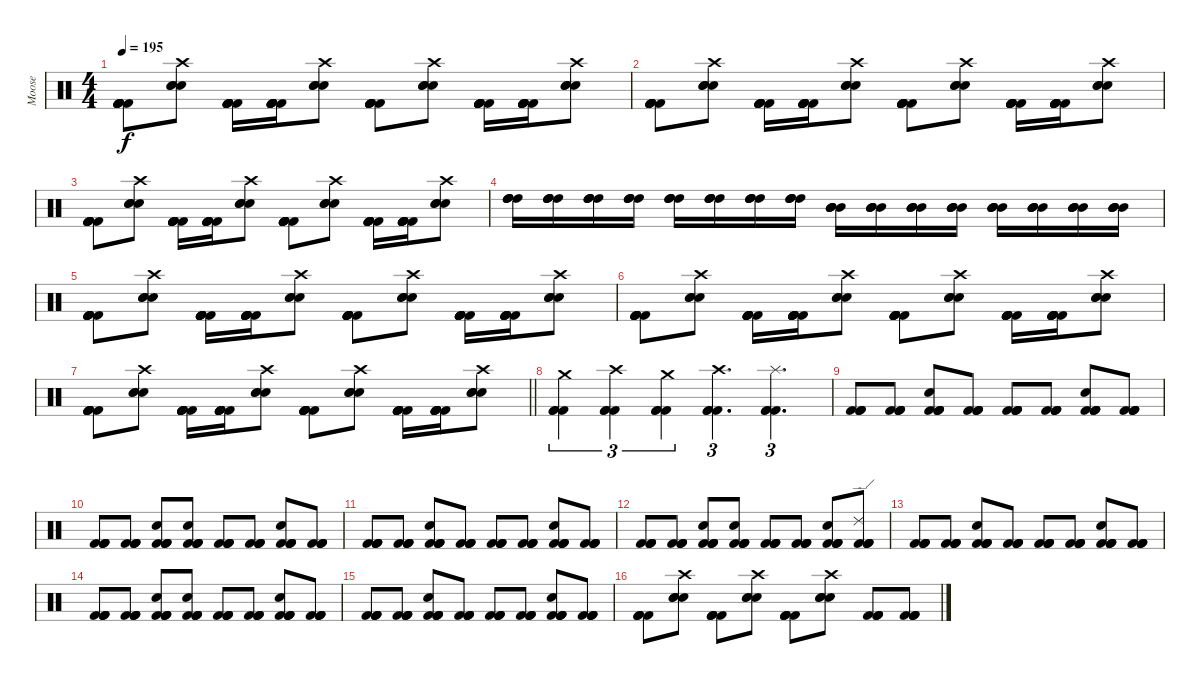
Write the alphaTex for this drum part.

\track ("Moose" "Moose") {instrument percussion}
\staff {score}
\articulation defaults
\ts (4 4)
\tempo 195
\clef neutral
\ks c
("Kick (hit) 2" "Kick (hit) 2" "Kick (hit) 2" "Kick (hit) 2" "Kick (hit) 2" "Kick (hit) 2").8{dy f} ("Electric Snare (hit)" "Electric Snare (hit)" "Electric Snare (hit)" "Crash high (hit)").8 ("Kick (hit) 2" "Kick (hit) 2" "Kick (hit) 2" "Kick (hit) 2" "Kick (hit) 2" "Kick (hit) 2").16 ("Kick (hit) 2" "Kick (hit) 2" "Kick (hit) 2" "Kick (hit) 2" "Kick (hit) 2" "Kick (hit) 2").16 ("Electric Snare (hit)" "Electric Snare (hit)" "Electric Snare (hit)" "Crash high (hit)").8 ("Kick (hit) 2" "Kick (hit) 2" "Kick (hit) 2" "Kick (hit) 2" "Kick (hit) 2" "Kick (hit) 2").8 ("Electric Snare (hit)" "Electric Snare (hit)" "Electric Snare (hit)" "Crash high (hit)").8 ("Kick (hit) 2" "Kick (hit) 2" "Kick (hit) 2" "Kick (hit) 2" "Kick (hit) 2" "Kick (hit) 2").16 ("Kick (hit) 2" "Kick (hit) 2" "Kick (hit) 2" "Kick (hit) 2" "Kick (hit) 2" "Kick (hit) 2").16 ("Electric Snare (hit)" "Electric Snare (hit)" "Electric Snare (hit)" "Crash high (hit)").8 |
("Kick (hit) 2" "Kick (hit) 2" "Kick (hit) 2" "Kick (hit) 2" "Kick (hit) 2" "Kick (hit) 2").8 ("Electric Snare (hit)" "Electric Snare (hit)" "Electric Snare (hit)" "Crash high (hit)").8 ("Kick (hit) 2" "Kick (hit) 2" "Kick (hit) 2" "Kick (hit) 2" "Kick (hit) 2" "Kick (hit) 2").16 ("Kick (hit) 2" "Kick (hit) 2" "Kick (hit) 2" "Kick (hit) 2" "Kick (hit) 2" "Kick (hit) 2").16 ("Electric Snare (hit)" "Electric Snare (hit)" "Electric Snare (hit)" "Crash high (hit)").8 ("Kick (hit) 2" "Kick (hit) 2" "Kick (hit) 2" "Kick (hit) 2" "Kick (hit) 2" "Kick (hit) 2").8 ("Electric Snare (hit)" "Electric Snare (hit)" "Electric Snare (hit)" "Crash high (hit)").8 ("Kick (hit) 2" "Kick (hit) 2" "Kick (hit) 2" "Kick (hit) 2" "Kick (hit) 2" "Kick (hit) 2").16 ("Kick (hit) 2" "Kick (hit) 2" "Kick (hit) 2" "Kick (hit) 2" "Kick (hit) 2" "Kick (hit) 2").16 ("Electric Snare (hit)" "Electric Snare (hit)" "Electric Snare (hit)" "Crash high (hit)").8 |
("Kick (hit) 2" "Kick (hit) 2" "Kick (hit) 2" "Kick (hit) 2" "Kick (hit) 2" "Kick (hit) 2").8 ("Electric Snare (hit)" "Electric Snare (hit)" "Electric Snare (hit)" "Crash high (hit)").8 ("Kick (hit) 2" "Kick (hit) 2" "Kick (hit) 2" "Kick (hit) 2" "Kick (hit) 2" "Kick (hit) 2").16 ("Kick (hit) 2" "Kick (hit) 2" "Kick (hit) 2" "Kick (hit) 2" "Kick (hit) 2" "Kick (hit) 2").16 ("Electric Snare (hit)" "Electric Snare (hit)" "Electric Snare (hit)" "Crash high (hit)").8 ("Kick (hit) 2" "Kick (hit) 2" "Kick (hit) 2" "Kick (hit) 2" "Kick (hit) 2" "Kick (hit) 2").8 ("Electric Snare (hit)" "Electric Snare (hit)" "Electric Snare (hit)" "Crash high (hit)").8 ("Kick (hit) 2" "Kick (hit) 2" "Kick (hit) 2" "Kick (hit) 2" "Kick (hit) 2" "Kick (hit) 2").16 ("Kick (hit) 2" "Kick (hit) 2" "Kick (hit) 2" "Kick (hit) 2" "Kick (hit) 2" "Kick (hit) 2").16 ("Electric Snare (hit)" "Electric Snare (hit)" "Electric Snare (hit)" "Crash high (hit)").8 |
("High Tom (hit)" "High Tom (hit)" "High Tom (hit)" "High Tom (hit)").16 ("High Tom (hit)" "High Tom (hit)" "High Tom (hit)" "High Tom (hit)").16 ("High Tom (hit)" "High Tom (hit)" "High Tom (hit)" "High Tom (hit)").16 ("High Tom (hit)" "High Tom (hit)" "High Tom (hit)" "High Tom (hit)").16 ("High Tom (hit)" "High Tom (hit)" "High Tom (hit)" "High Tom (hit)").16 ("High Tom (hit)" "High Tom (hit)" "High Tom (hit)" "High Tom (hit)").16 ("High Tom (hit)" "High Tom (hit)" "High Tom (hit)" "High Tom (hit)").16 ("High Tom (hit)" "High Tom (hit)" "High Tom (hit)" "High Tom (hit)").16 ("Mid Tom (hit)" "Mid Tom (hit)" "Mid Tom (hit)" "Mid Tom (hit)").16 ("Mid Tom (hit)" "Mid Tom (hit)" "Mid Tom (hit)" "Mid Tom (hit)").16 ("Mid Tom (hit)" "Mid Tom (hit)" "Mid Tom (hit)" "Mid Tom (hit)").16 ("Mid Tom (hit)" "Mid Tom (hit)" "Mid Tom (hit)" "Mid Tom (hit)").16 ("Mid Tom (hit)" "Mid Tom (hit)" "Mid Tom (hit)" "Mid Tom (hit)").16 ("Mid Tom (hit)" "Mid Tom (hit)" "Mid Tom (hit)" "Mid Tom (hit)").16 ("Mid Tom (hit)" "Mid Tom (hit)" "Mid Tom (hit)" "Mid Tom (hit)").16 ("Mid Tom (hit)" "Mid Tom (hit)" "Mid Tom (hit)" "Mid Tom (hit)").16 |
("Kick (hit) 2" "Kick (hit) 2" "Kick (hit) 2" "Kick (hit) 2" "Kick (hit) 2" "Kick (hit) 2").8 ("Electric Snare (hit)" "Electric Snare (hit)" "Electric Snare (hit)" "Crash high (hit)").8 ("Kick (hit) 2" "Kick (hit) 2" "Kick (hit) 2" "Kick (hit) 2" "Kick (hit) 2" "Kick (hit) 2").16 ("Kick (hit) 2" "Kick (hit) 2" "Kick (hit) 2" "Kick (hit) 2" "Kick (hit) 2" "Kick (hit) 2").16 ("Electric Snare (hit)" "Electric Snare (hit)" "Electric Snare (hit)" "Crash high (hit)").8 ("Kick (hit) 2" "Kick (hit) 2" "Kick (hit) 2" "Kick (hit) 2" "Kick (hit) 2" "Kick (hit) 2").8 ("Electric Snare (hit)" "Electric Snare (hit)" "Electric Snare (hit)" "Crash high (hit)").8 ("Kick (hit) 2" "Kick (hit) 2" "Kick (hit) 2" "Kick (hit) 2" "Kick (hit) 2" "Kick (hit) 2").16 ("Kick (hit) 2" "Kick (hit) 2" "Kick (hit) 2" "Kick (hit) 2" "Kick (hit) 2" "Kick (hit) 2").16 ("Electric Snare (hit)" "Electric Snare (hit)" "Electric Snare (hit)" "Crash high (hit)").8 |
("Kick (hit) 2" "Kick (hit) 2" "Kick (hit) 2" "Kick (hit) 2" "Kick (hit) 2" "Kick (hit) 2").8 ("Electric Snare (hit)" "Electric Snare (hit)" "Electric Snare (hit)" "Crash high (hit)").8 ("Kick (hit) 2" "Kick (hit) 2" "Kick (hit) 2" "Kick (hit) 2" "Kick (hit) 2" "Kick (hit) 2").16 ("Kick (hit) 2" "Kick (hit) 2" "Kick (hit) 2" "Kick (hit) 2" "Kick (hit) 2" "Kick (hit) 2").16 ("Electric Snare (hit)" "Electric Snare (hit)" "Electric Snare (hit)" "Crash high (hit)").8 ("Kick (hit) 2" "Kick (hit) 2" "Kick (hit) 2" "Kick (hit) 2" "Kick (hit) 2" "Kick (hit) 2").8 ("Electric Snare (hit)" "Electric Snare (hit)" "Electric Snare (hit)" "Crash high (hit)").8 ("Kick (hit) 2" "Kick (hit) 2" "Kick (hit) 2" "Kick (hit) 2" "Kick (hit) 2" "Kick (hit) 2").16 ("Kick (hit) 2" "Kick (hit) 2" "Kick (hit) 2" "Kick (hit) 2" "Kick (hit) 2" "Kick (hit) 2").16 ("Electric Snare (hit)" "Electric Snare (hit)" "Electric Snare (hit)" "Crash high (hit)").8 |
\barLineRight lightlight
("Kick (hit) 2" "Kick (hit) 2" "Kick (hit) 2" "Kick (hit) 2" "Kick (hit) 2" "Kick (hit) 2").8 ("Electric Snare (hit)" "Electric Snare (hit)" "Electric Snare (hit)" "Crash high (hit)").8 ("Kick (hit) 2" "Kick (hit) 2" "Kick (hit) 2" "Kick (hit) 2" "Kick (hit) 2" "Kick (hit) 2").16 ("Kick (hit) 2" "Kick (hit) 2" "Kick (hit) 2" "Kick (hit) 2" "Kick (hit) 2" "Kick (hit) 2").16 ("Electric Snare (hit)" "Electric Snare (hit)" "Electric Snare (hit)" "Crash high (hit)").8 ("Kick (hit) 2" "Kick (hit) 2" "Kick (hit) 2" "Kick (hit) 2" "Kick (hit) 2" "Kick (hit) 2").8 ("Electric Snare (hit)" "Electric Snare (hit)" "Electric Snare (hit)" "Crash high (hit)").8 ("Kick (hit) 2" "Kick (hit) 2" "Kick (hit) 2" "Kick (hit) 2" "Kick (hit) 2" "Kick (hit) 2").16 ("Kick (hit) 2" "Kick (hit) 2" "Kick (hit) 2" "Kick (hit) 2" "Kick (hit) 2" "Kick (hit) 2").16 ("Electric Snare (hit)" "Electric Snare (hit)" "Electric Snare (hit)" "Crash high (hit)").8 |
("Kick (hit) 2" "Kick (hit) 2" "Kick (hit) 2" "Crash medium (hit)").4{tu (3 2)} ("Kick (hit) 2" "Kick (hit) 2" "Kick (hit) 2" "Crash high (hit)").4{tu (3 2)} ("Kick (hit) 2" "Kick (hit) 2" "Kick (hit) 2" "Crash medium (hit)").4{tu (3 2)} ("Kick (hit) 2" "Kick (hit) 2" "Kick (hit) 2" "Crash high (hit)").4{d tu (3 2)} ("Kick (hit) 2" "Kick (hit) 2" "Kick (hit) 2" "Splash (hit)").4{d tu (3 2)} |
("Kick (hit) 2" "Kick (hit) 2" "Kick (hit) 2" "Kick (hit) 2").8 ("Kick (hit) 2" "Kick (hit) 2" "Kick (hit) 2" "Kick (hit) 2").8 ("Kick (hit) 2" "Kick (hit) 2" "Kick (hit) 2" "Kick (hit) 2" "Hand Clap (hit)").8 ("Kick (hit) 2" "Kick (hit) 2" "Kick (hit) 2" "Kick (hit) 2").8 ("Kick (hit) 2" "Kick (hit) 2" "Kick (hit) 2" "Kick (hit) 2").8 ("Kick (hit) 2" "Kick (hit) 2" "Kick (hit) 2" "Kick (hit) 2").8 ("Kick (hit) 2" "Kick (hit) 2" "Kick (hit) 2" "Kick (hit) 2" "Hand Clap (hit)").8 ("Kick (hit) 2" "Kick (hit) 2" "Kick (hit) 2" "Kick (hit) 2").8 |
("Kick (hit) 2" "Kick (hit) 2" "Kick (hit) 2" "Kick (hit) 2").8 ("Kick (hit) 2" "Kick (hit) 2" "Kick (hit) 2" "Kick (hit) 2").8 ("Kick (hit) 2" "Kick (hit) 2" "Kick (hit) 2" "Kick (hit) 2" "Hand Clap (hit)").8 ("Kick (hit) 2" "Kick (hit) 2" "Kick (hit) 2" "Kick (hit) 2" "Hand Clap (hit)").8 ("Kick (hit) 2" "Kick (hit) 2" "Kick (hit) 2" "Kick (hit) 2").8 ("Kick (hit) 2" "Kick (hit) 2" "Kick (hit) 2" "Kick (hit) 2").8 ("Kick (hit) 2" "Kick (hit) 2" "Kick (hit) 2" "Kick (hit) 2" "Hand Clap (hit)").8 ("Kick (hit) 2" "Kick (hit) 2" "Kick (hit) 2" "Kick (hit) 2").8 |
("Kick (hit) 2" "Kick (hit) 2" "Kick (hit) 2" "Kick (hit) 2").8 ("Kick (hit) 2" "Kick (hit) 2" "Kick (hit) 2" "Kick (hit) 2").8 ("Kick (hit) 2" "Kick (hit) 2" "Kick (hit) 2" "Kick (hit) 2" "Hand Clap (hit)").8 ("Kick (hit) 2" "Kick (hit) 2" "Kick (hit) 2" "Kick (hit) 2").8 ("Kick (hit) 2" "Kick (hit) 2" "Kick (hit) 2" "Kick (hit) 2").8 ("Kick (hit) 2" "Kick (hit) 2" "Kick (hit) 2" "Kick (hit) 2").8 ("Kick (hit) 2" "Kick (hit) 2" "Kick (hit) 2" "Kick (hit) 2" "Hand Clap (hit)").8 ("Kick (hit) 2" "Kick (hit) 2" "Kick (hit) 2" "Kick (hit) 2").8 |
("Kick (hit) 2" "Kick (hit) 2" "Kick (hit) 2" "Kick (hit) 2").8 ("Kick (hit) 2" "Kick (hit) 2" "Kick (hit) 2" "Kick (hit) 2").8 ("Kick (hit) 2" "Kick (hit) 2" "Kick (hit) 2" "Kick (hit) 2" "Hand Clap (hit)").8 ("Kick (hit) 2" "Kick (hit) 2" "Kick (hit) 2" "Kick (hit) 2" "Hand Clap (hit)").8 ("Kick (hit) 2" "Kick (hit) 2" "Kick (hit) 2" "Kick (hit) 2").8 ("Kick (hit) 2" "Kick (hit) 2" "Kick (hit) 2" "Kick (hit) 2").8 ("Kick (hit) 2" "Kick (hit) 2" "Kick (hit) 2" "Kick (hit) 2" "Hand Clap (hit)").8 ("Kick (hit) 2" "Kick (hit) 2" "Kick (hit) 2" "Kick (hit) 2" "Ride (edge) 2").8 |
("Kick (hit) 2" "Kick (hit) 2" "Kick (hit) 2" "Kick (hit) 2").8 ("Kick (hit) 2" "Kick (hit) 2" "Kick (hit) 2" "Kick (hit) 2").8 ("Kick (hit) 2" "Kick (hit) 2" "Kick (hit) 2" "Kick (hit) 2" "Hand Clap (hit)").8 ("Kick (hit) 2" "Kick (hit) 2" "Kick (hit) 2" "Kick (hit) 2").8 ("Kick (hit) 2" "Kick (hit) 2" "Kick (hit) 2" "Kick (hit) 2").8 ("Kick (hit) 2" "Kick (hit) 2" "Kick (hit) 2" "Kick (hit) 2").8 ("Kick (hit) 2" "Kick (hit) 2" "Kick (hit) 2" "Kick (hit) 2" "Hand Clap (hit)").8 ("Kick (hit) 2" "Kick (hit) 2" "Kick (hit) 2" "Kick (hit) 2").8 |
("Kick (hit) 2" "Kick (hit) 2" "Kick (hit) 2" "Kick (hit) 2").8 ("Kick (hit) 2" "Kick (hit) 2" "Kick (hit) 2" "Kick (hit) 2").8 ("Kick (hit) 2" "Kick (hit) 2" "Kick (hit) 2" "Kick (hit) 2" "Hand Clap (hit)").8 ("Kick (hit) 2" "Kick (hit) 2" "Kick (hit) 2" "Kick (hit) 2" "Hand Clap (hit)").8 ("Kick (hit) 2" "Kick (hit) 2" "Kick (hit) 2" "Kick (hit) 2").8 ("Kick (hit) 2" "Kick (hit) 2" "Kick (hit) 2" "Kick (hit) 2").8 ("Kick (hit) 2" "Kick (hit) 2" "Kick (hit) 2" "Kick (hit) 2" "Hand Clap (hit)").8 ("Kick (hit) 2" "Kick (hit) 2" "Kick (hit) 2" "Kick (hit) 2").8 |
("Kick (hit) 2" "Kick (hit) 2" "Kick (hit) 2" "Kick (hit) 2").8 ("Kick (hit) 2" "Kick (hit) 2" "Kick (hit) 2" "Kick (hit) 2").8 ("Kick (hit) 2" "Kick (hit) 2" "Kick (hit) 2" "Kick (hit) 2" "Hand Clap (hit)").8 ("Kick (hit) 2" "Kick (hit) 2" "Kick (hit) 2" "Kick (hit) 2").8 ("Kick (hit) 2" "Kick (hit) 2" "Kick (hit) 2" "Kick (hit) 2").8 ("Kick (hit) 2" "Kick (hit) 2" "Kick (hit) 2" "Kick (hit) 2").8 ("Kick (hit) 2" "Kick (hit) 2" "Kick (hit) 2" "Kick (hit) 2" "Hand Clap (hit)").8 ("Kick (hit) 2" "Kick (hit) 2" "Kick (hit) 2" "Kick (hit) 2").8 |
("Kick (hit) 2" "Kick (hit) 2" "Kick (hit) 2" "Kick (hit) 2").8 ("Electric Snare (hit)" "Electric Snare (hit)" "Electric Snare (hit)" "Crash high (hit)").8 ("Kick (hit) 2" "Kick (hit) 2" "Kick (hit) 2" "Kick (hit) 2").8 ("Electric Snare (hit)" "Electric Snare (hit)" "Electric Snare (hit)" "Crash high (hit)").8 ("Kick (hit) 2" "Kick (hit) 2" "Kick (hit) 2" "Kick (hit) 2").8 ("Electric Snare (hit)" "Electric Snare (hit)" "Electric Snare (hit)" "Crash high (hit)").8 ("Kick (hit) 2" "Kick (hit) 2" "Kick (hit) 2" "Kick (hit) 2").8 ("Kick (hit) 2" "Kick (hit) 2" "Kick (hit) 2" "Kick (hit) 2").8
